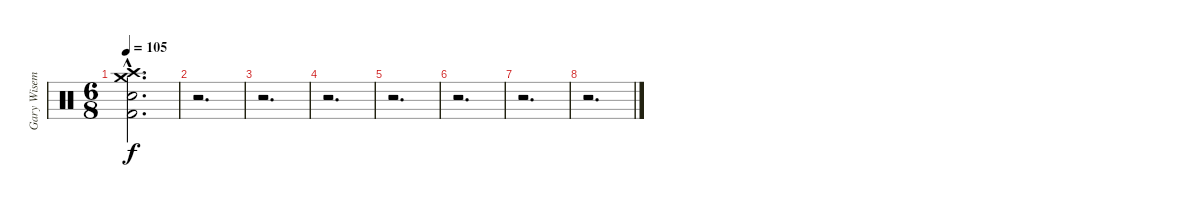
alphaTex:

\track ("Gary Wiseman - Drums" "Gary Wisem") {instrument percussion}
\staff {score}
\articulation defaults
\ts (6 8)
\tempo 105
\clef neutral
\ks c
("Crash medium (hit)"{hac} "Crash high (hit)"{hac} "Electric Snare (hit)"{hac} "Kick (hit) 2"{hac}).2{d dy f} |
r.2{d} |
r.2{d} |
r.2{d} |
r.2{d} |
r.2{d} |
r.2{d} |
r.2{d}
